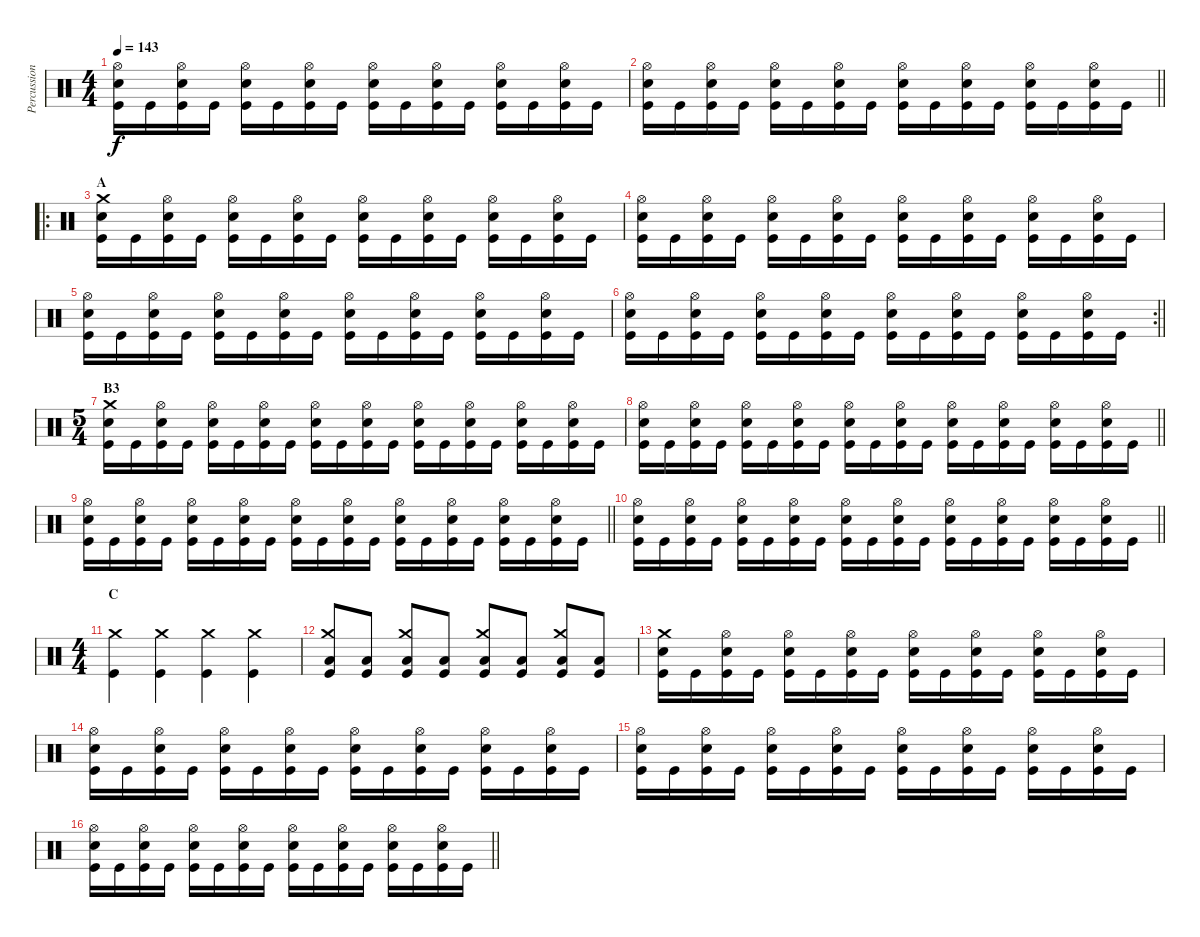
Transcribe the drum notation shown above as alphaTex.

\track ("Percussion" "Percussion") {instrument percussion}
\staff {score}
\articulation defaults
\ts (4 4)
\tempo 143
\clef neutral
\ks c
("Kick (hit)" "Snare (hit) 2" "Hi-Hat (open)").16{dy f} "Kick (hit)".16 ("Kick (hit)" "Snare (hit) 2" "Hi-Hat (open)").16 "Kick (hit)".16 ("Kick (hit)" "Snare (hit) 2" "Hi-Hat (open)").16 "Kick (hit)".16 ("Kick (hit)" "Snare (hit) 2" "Hi-Hat (open)").16 "Kick (hit)".16 ("Kick (hit)" "Snare (hit) 2" "Hi-Hat (open)").16 "Kick (hit)".16 ("Kick (hit)" "Snare (hit) 2" "Hi-Hat (open)").16 "Kick (hit)".16 ("Kick (hit)" "Snare (hit) 2" "Hi-Hat (open)").16 "Kick (hit)".16 ("Kick (hit)" "Snare (hit) 2" "Hi-Hat (open)").16 "Kick (hit)".16 |
\barLineRight lightlight
("Kick (hit)" "Snare (hit) 2" "Hi-Hat (open)").16 "Kick (hit)".16 ("Kick (hit)" "Snare (hit) 2" "Hi-Hat (open)").16 "Kick (hit)".16 ("Kick (hit)" "Snare (hit) 2" "Hi-Hat (open)").16 "Kick (hit)".16 ("Kick (hit)" "Snare (hit) 2" "Hi-Hat (open)").16 "Kick (hit)".16 ("Kick (hit)" "Snare (hit) 2" "Hi-Hat (open)").16 "Kick (hit)".16 ("Kick (hit)" "Snare (hit) 2" "Hi-Hat (open)").16 "Kick (hit)".16 ("Kick (hit)" "Snare (hit) 2" "Hi-Hat (open)").16 "Kick (hit)".16 ("Kick (hit)" "Snare (hit) 2" "Hi-Hat (open)").16 "Kick (hit)".16 |
\ro
\section ("" "A")
("Kick (hit)" "Snare (hit) 2" "Crash medium (hit)").16 "Kick (hit)".16 ("Kick (hit)" "Snare (hit) 2" "Hi-Hat (open)").16 "Kick (hit)".16 ("Kick (hit)" "Snare (hit) 2" "Hi-Hat (open)").16 "Kick (hit)".16 ("Kick (hit)" "Snare (hit) 2" "Hi-Hat (open)").16 "Kick (hit)".16 ("Kick (hit)" "Snare (hit) 2" "Hi-Hat (open)").16 "Kick (hit)".16 ("Kick (hit)" "Snare (hit) 2" "Hi-Hat (open)").16 "Kick (hit)".16 ("Kick (hit)" "Snare (hit) 2" "Hi-Hat (open)").16 "Kick (hit)".16 ("Kick (hit)" "Snare (hit) 2" "Hi-Hat (open)").16 "Kick (hit)".16 |
("Kick (hit)" "Snare (hit) 2" "Hi-Hat (open)").16 "Kick (hit)".16 ("Kick (hit)" "Snare (hit) 2" "Hi-Hat (open)").16 "Kick (hit)".16 ("Kick (hit)" "Snare (hit) 2" "Hi-Hat (open)").16 "Kick (hit)".16 ("Kick (hit)" "Snare (hit) 2" "Hi-Hat (open)").16 "Kick (hit)".16 ("Kick (hit)" "Snare (hit) 2" "Hi-Hat (open)").16 "Kick (hit)".16 ("Kick (hit)" "Snare (hit) 2" "Hi-Hat (open)").16 "Kick (hit)".16 ("Kick (hit)" "Snare (hit) 2" "Hi-Hat (open)").16 "Kick (hit)".16 ("Kick (hit)" "Snare (hit) 2" "Hi-Hat (open)").16 "Kick (hit)".16 |
("Kick (hit)" "Snare (hit) 2" "Hi-Hat (open)").16 "Kick (hit)".16 ("Kick (hit)" "Snare (hit) 2" "Hi-Hat (open)").16 "Kick (hit)".16 ("Kick (hit)" "Snare (hit) 2" "Hi-Hat (open)").16 "Kick (hit)".16 ("Kick (hit)" "Snare (hit) 2" "Hi-Hat (open)").16 "Kick (hit)".16 ("Kick (hit)" "Snare (hit) 2" "Hi-Hat (open)").16 "Kick (hit)".16 ("Kick (hit)" "Snare (hit) 2" "Hi-Hat (open)").16 "Kick (hit)".16 ("Kick (hit)" "Snare (hit) 2" "Hi-Hat (open)").16 "Kick (hit)".16 ("Kick (hit)" "Snare (hit) 2" "Hi-Hat (open)").16 "Kick (hit)".16 |
\rc 2
\barLineRight lightlight
("Kick (hit)" "Snare (hit) 2" "Hi-Hat (open)").16 "Kick (hit)".16 ("Kick (hit)" "Snare (hit) 2" "Hi-Hat (open)").16 "Kick (hit)".16 ("Kick (hit)" "Snare (hit) 2" "Hi-Hat (open)").16 "Kick (hit)".16 ("Kick (hit)" "Snare (hit) 2" "Hi-Hat (open)").16 "Kick (hit)".16 ("Kick (hit)" "Snare (hit) 2" "Hi-Hat (open)").16 "Kick (hit)".16 ("Kick (hit)" "Snare (hit) 2" "Hi-Hat (open)").16 "Kick (hit)".16 ("Kick (hit)" "Snare (hit) 2" "Hi-Hat (open)").16 "Kick (hit)".16 ("Kick (hit)" "Snare (hit) 2" "Hi-Hat (open)").16 "Kick (hit)".16 |
\ts (5 4)
\section ("" "B3")
("Kick (hit)" "Snare (hit) 2" "Crash medium (hit)").16 "Kick (hit)".16 ("Kick (hit)" "Snare (hit) 2" "Hi-Hat (open)").16 "Kick (hit)".16 ("Kick (hit)" "Snare (hit) 2" "Hi-Hat (open)").16 "Kick (hit)".16 ("Kick (hit)" "Snare (hit) 2" "Hi-Hat (open)").16 "Kick (hit)".16 ("Kick (hit)" "Snare (hit) 2" "Hi-Hat (open)").16 "Kick (hit)".16 ("Kick (hit)" "Snare (hit) 2" "Hi-Hat (open)").16 "Kick (hit)".16 ("Kick (hit)" "Snare (hit) 2" "Hi-Hat (open)").16 "Kick (hit)".16 ("Kick (hit)" "Snare (hit) 2" "Hi-Hat (open)").16 "Kick (hit)".16 ("Kick (hit)" "Snare (hit) 2" "Hi-Hat (open)").16 "Kick (hit)".16 ("Kick (hit)" "Snare (hit) 2" "Hi-Hat (open)").16 "Kick (hit)".16 |
\barLineRight lightlight
("Kick (hit)" "Snare (hit) 2" "Hi-Hat (open)").16 "Kick (hit)".16 ("Kick (hit)" "Snare (hit) 2" "Hi-Hat (open)").16 "Kick (hit)".16 ("Kick (hit)" "Snare (hit) 2" "Hi-Hat (open)").16 "Kick (hit)".16 ("Kick (hit)" "Snare (hit) 2" "Hi-Hat (open)").16 "Kick (hit)".16 ("Kick (hit)" "Snare (hit) 2" "Hi-Hat (open)").16 "Kick (hit)".16 ("Kick (hit)" "Snare (hit) 2" "Hi-Hat (open)").16 "Kick (hit)".16 ("Kick (hit)" "Snare (hit) 2" "Hi-Hat (open)").16 "Kick (hit)".16 ("Kick (hit)" "Snare (hit) 2" "Hi-Hat (open)").16 "Kick (hit)".16 ("Kick (hit)" "Snare (hit) 2" "Hi-Hat (open)").16 "Kick (hit)".16 ("Kick (hit)" "Snare (hit) 2" "Hi-Hat (open)").16 "Kick (hit)".16 |
\barLineRight lightlight
("Kick (hit)" "Snare (hit) 2" "Hi-Hat (open)").16 "Kick (hit)".16 ("Kick (hit)" "Snare (hit) 2" "Hi-Hat (open)").16 "Kick (hit)".16 ("Kick (hit)" "Snare (hit) 2" "Hi-Hat (open)").16 "Kick (hit)".16 ("Kick (hit)" "Snare (hit) 2" "Hi-Hat (open)").16 "Kick (hit)".16 ("Kick (hit)" "Snare (hit) 2" "Hi-Hat (open)").16 "Kick (hit)".16 ("Kick (hit)" "Snare (hit) 2" "Hi-Hat (open)").16 "Kick (hit)".16 ("Kick (hit)" "Snare (hit) 2" "Hi-Hat (open)").16 "Kick (hit)".16 ("Kick (hit)" "Snare (hit) 2" "Hi-Hat (open)").16 "Kick (hit)".16 ("Kick (hit)" "Snare (hit) 2" "Hi-Hat (open)").16 "Kick (hit)".16 ("Kick (hit)" "Snare (hit) 2" "Hi-Hat (open)").16 "Kick (hit)".16 |
\barLineRight lightlight
("Kick (hit)" "Snare (hit) 2" "Hi-Hat (open)").16 "Kick (hit)".16 ("Kick (hit)" "Snare (hit) 2" "Hi-Hat (open)").16 "Kick (hit)".16 ("Kick (hit)" "Snare (hit) 2" "Hi-Hat (open)").16 "Kick (hit)".16 ("Kick (hit)" "Snare (hit) 2" "Hi-Hat (open)").16 "Kick (hit)".16 ("Kick (hit)" "Snare (hit) 2" "Hi-Hat (open)").16 "Kick (hit)".16 ("Kick (hit)" "Snare (hit) 2" "Hi-Hat (open)").16 "Kick (hit)".16 ("Kick (hit)" "Snare (hit) 2" "Hi-Hat (open)").16 "Kick (hit)".16 ("Kick (hit)" "Snare (hit) 2" "Hi-Hat (open)").16 "Kick (hit)".16 ("Kick (hit)" "Snare (hit) 2" "Hi-Hat (open)").16 "Kick (hit)".16 ("Kick (hit)" "Snare (hit) 2" "Hi-Hat (open)").16 "Kick (hit)".16 |
\ts (4 4)
\section ("" "C")
("Kick (hit)" "Crash medium (hit)").4 ("Kick (hit)" "Crash medium (hit)").4 ("Kick (hit)" "Crash medium (hit)").4 ("Kick (hit)" "Crash medium (hit)").4 |
("Kick (hit)" "Low Floor Tom (hit)" "Crash medium (hit)").8 ("Kick (hit)" "Low Floor Tom (hit)").8 ("Kick (hit)" "Low Floor Tom (hit)" "Crash medium (hit)").8 ("Kick (hit)" "Low Floor Tom (hit)").8 ("Kick (hit)" "Low Floor Tom (hit)" "Crash medium (hit)").8 ("Kick (hit)" "Low Floor Tom (hit)").8 ("Kick (hit)" "Low Floor Tom (hit)" "Crash medium (hit)").8 ("Kick (hit)" "Low Floor Tom (hit)").8 |
("Kick (hit)" "Snare (hit) 2" "Crash medium (hit)").16 "Kick (hit)".16 ("Kick (hit)" "Snare (hit) 2" "Hi-Hat (open)").16 "Kick (hit)".16 ("Kick (hit)" "Snare (hit) 2" "Hi-Hat (open)").16 "Kick (hit)".16 ("Kick (hit)" "Snare (hit) 2" "Hi-Hat (open)").16 "Kick (hit)".16 ("Kick (hit)" "Snare (hit) 2" "Hi-Hat (open)").16 "Kick (hit)".16 ("Kick (hit)" "Snare (hit) 2" "Hi-Hat (open)").16 "Kick (hit)".16 ("Kick (hit)" "Snare (hit) 2" "Hi-Hat (open)").16 "Kick (hit)".16 ("Kick (hit)" "Snare (hit) 2" "Hi-Hat (open)").16 "Kick (hit)".16 |
("Kick (hit)" "Snare (hit) 2" "Hi-Hat (open)").16 "Kick (hit)".16 ("Kick (hit)" "Snare (hit) 2" "Hi-Hat (open)").16 "Kick (hit)".16 ("Kick (hit)" "Snare (hit) 2" "Hi-Hat (open)").16 "Kick (hit)".16 ("Kick (hit)" "Snare (hit) 2" "Hi-Hat (open)").16 "Kick (hit)".16 ("Kick (hit)" "Snare (hit) 2" "Hi-Hat (open)").16 "Kick (hit)".16 ("Kick (hit)" "Snare (hit) 2" "Hi-Hat (open)").16 "Kick (hit)".16 ("Kick (hit)" "Snare (hit) 2" "Hi-Hat (open)").16 "Kick (hit)".16 ("Kick (hit)" "Snare (hit) 2" "Hi-Hat (open)").16 "Kick (hit)".16 |
("Kick (hit)" "Snare (hit) 2" "Hi-Hat (open)").16 "Kick (hit)".16 ("Kick (hit)" "Snare (hit) 2" "Hi-Hat (open)").16 "Kick (hit)".16 ("Kick (hit)" "Snare (hit) 2" "Hi-Hat (open)").16 "Kick (hit)".16 ("Kick (hit)" "Snare (hit) 2" "Hi-Hat (open)").16 "Kick (hit)".16 ("Kick (hit)" "Snare (hit) 2" "Hi-Hat (open)").16 "Kick (hit)".16 ("Kick (hit)" "Snare (hit) 2" "Hi-Hat (open)").16 "Kick (hit)".16 ("Kick (hit)" "Snare (hit) 2" "Hi-Hat (open)").16 "Kick (hit)".16 ("Kick (hit)" "Snare (hit) 2" "Hi-Hat (open)").16 "Kick (hit)".16 |
\barLineRight lightlight
("Kick (hit)" "Snare (hit) 2" "Hi-Hat (open)").16 "Kick (hit)".16 ("Kick (hit)" "Snare (hit) 2" "Hi-Hat (open)").16 "Kick (hit)".16 ("Kick (hit)" "Snare (hit) 2" "Hi-Hat (open)").16 "Kick (hit)".16 ("Kick (hit)" "Snare (hit) 2" "Hi-Hat (open)").16 "Kick (hit)".16 ("Kick (hit)" "Snare (hit) 2" "Hi-Hat (open)").16 "Kick (hit)".16 ("Kick (hit)" "Snare (hit) 2" "Hi-Hat (open)").16 "Kick (hit)".16 ("Kick (hit)" "Snare (hit) 2" "Hi-Hat (open)").16 "Kick (hit)".16 ("Kick (hit)" "Snare (hit) 2" "Hi-Hat (open)").16 "Kick (hit)".16
